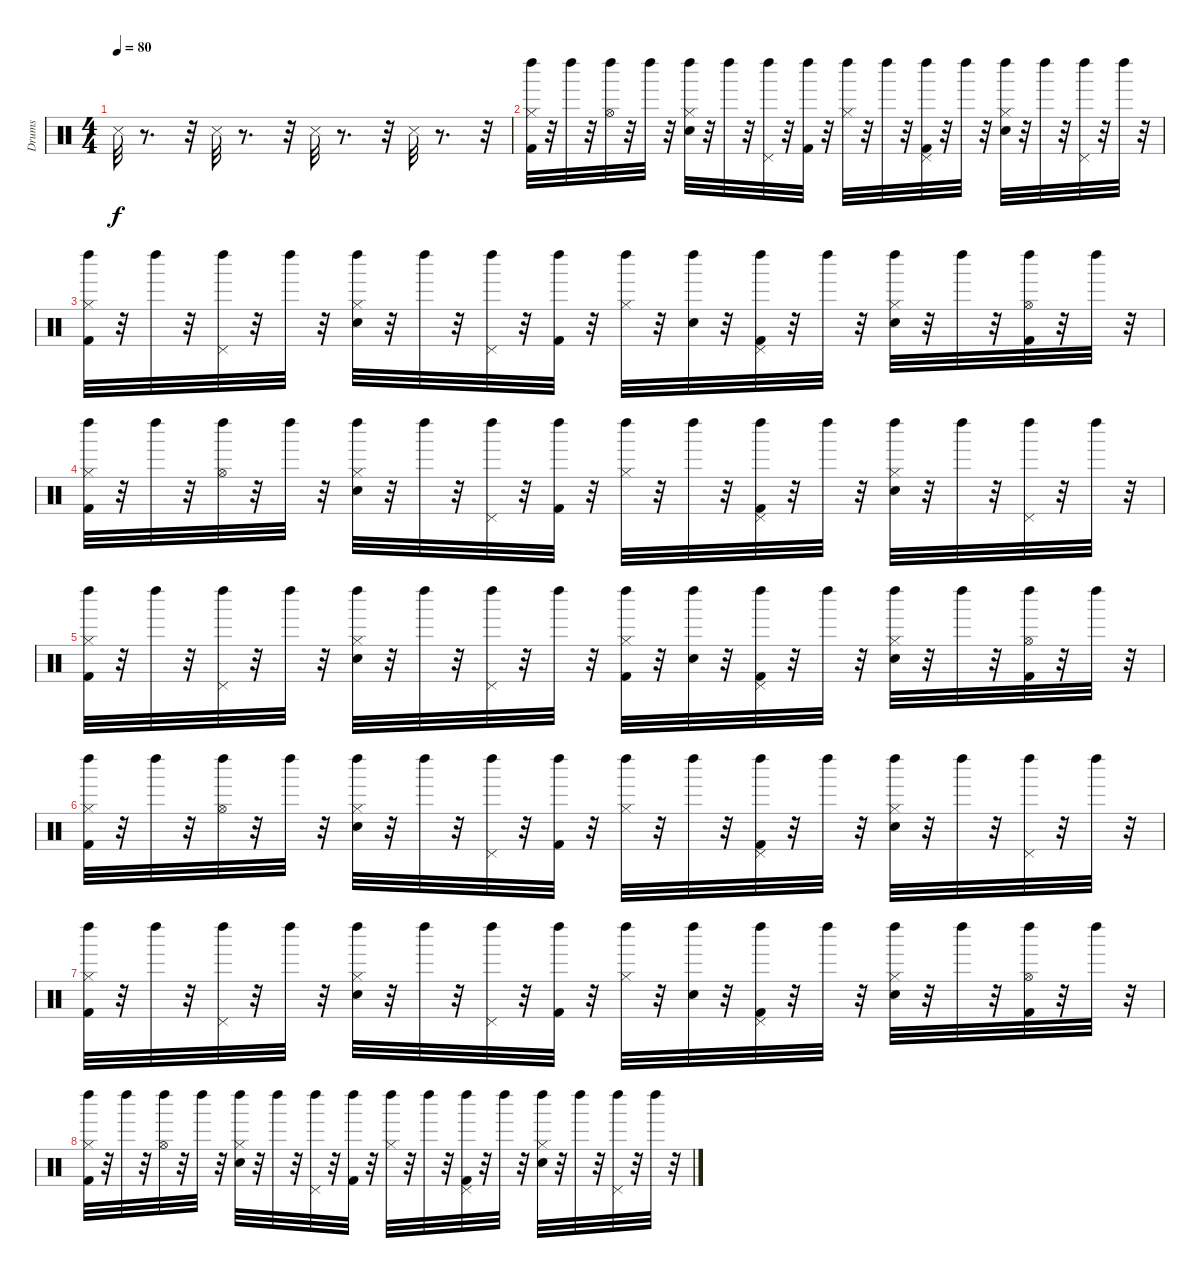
\track ("Drums" "Drums") {instrument percussion}
\staff {score}
\articulation defaults
\ts (4 4)
\tempo 80
\clef neutral
\ks c "Snare (side stick) 3".32{dy f}
r.8{d} r.32 "Snare (side stick) 3".32 r.8{d} r.32 "Snare (side stick) 3".32 r.8{d} r.32 "Snare (side stick) 3".32 r.8{d} r.32 |
("Left Maraca (hit)" "Kick (hit) 2" "Hi-Hat (closed)").32 r.32 "Left Maraca (hit)".32 r.32 ("Left Maraca (hit)" "Hi-Hat (open)").32 r.32 "Left Maraca (hit)".32 r.32 ("Left Maraca (hit)" "Snare (hit) 2" "Hi-Hat (closed)").32 r.32 "Left Maraca (hit)".32 r.32 ("Left Maraca (hit)" "Pedal Hi-Hat (hit)").32 r.32 ("Left Maraca (hit)" "Kick (hit) 2").32 r.32 ("Left Maraca (hit)" "Hi-Hat (closed)").32 r.32 "Left Maraca (hit)".32 r.32 ("Left Maraca (hit)" "Kick (hit) 2" "Pedal Hi-Hat (hit)").32 r.32 "Left Maraca (hit)".32 r.32 ("Left Maraca (hit)" "Snare (hit) 2" "Hi-Hat (closed)").32 r.32 "Left Maraca (hit)".32 r.32 ("Left Maraca (hit)" "Pedal Hi-Hat (hit)").32 r.32 "Left Maraca (hit)".32 r.32 |
("Kick (hit) 2" "Hi-Hat (closed)" "Left Maraca (hit)").32 r.32 "Left Maraca (hit)".32 r.32 ("Pedal Hi-Hat (hit)" "Left Maraca (hit)").32 r.32 "Left Maraca (hit)".32 r.32 ("Snare (hit) 2" "Hi-Hat (closed)" "Left Maraca (hit)").32 r.32 "Left Maraca (hit)".32 r.32 ("Pedal Hi-Hat (hit)" "Left Maraca (hit)").32 r.32 ("Left Maraca (hit)" "Kick (hit) 2").32 r.32 ("Hi-Hat (closed)" "Left Maraca (hit)").32 r.32 ("Left Maraca (hit)" "Snare (hit) 2").32 r.32 ("Kick (hit) 2" "Pedal Hi-Hat (hit)" "Left Maraca (hit)").32 r.32 "Left Maraca (hit)".32 r.32 ("Snare (hit) 2" "Hi-Hat (closed)" "Left Maraca (hit)").32 r.32 "Left Maraca (hit)".32 r.32 ("Left Maraca (hit)" "Hi-Hat (open)" "Kick (hit) 2").32 r.32 "Left Maraca (hit)".32 r.32 |
("Left Maraca (hit)" "Kick (hit) 2" "Hi-Hat (closed)").32 r.32 "Left Maraca (hit)".32 r.32 ("Left Maraca (hit)" "Hi-Hat (open)").32 r.32 "Left Maraca (hit)".32 r.32 ("Left Maraca (hit)" "Snare (hit) 2" "Hi-Hat (closed)").32 r.32 "Left Maraca (hit)".32 r.32 ("Left Maraca (hit)" "Pedal Hi-Hat (hit)").32 r.32 ("Left Maraca (hit)" "Kick (hit) 2").32 r.32 ("Left Maraca (hit)" "Hi-Hat (closed)").32 r.32 "Left Maraca (hit)".32 r.32 ("Left Maraca (hit)" "Kick (hit) 2" "Pedal Hi-Hat (hit)").32 r.32 "Left Maraca (hit)".32 r.32 ("Left Maraca (hit)" "Snare (hit) 2" "Hi-Hat (closed)").32 r.32 "Left Maraca (hit)".32 r.32 ("Left Maraca (hit)" "Pedal Hi-Hat (hit)").32 r.32 "Left Maraca (hit)".32 r.32 |
("Left Maraca (hit)" "Kick (hit) 2" "Hi-Hat (closed)").32 r.32 "Left Maraca (hit)".32 r.32 ("Left Maraca (hit)" "Pedal Hi-Hat (hit)").32 r.32 "Left Maraca (hit)".32 r.32 ("Left Maraca (hit)" "Snare (hit) 2" "Hi-Hat (closed)").32 r.32 "Left Maraca (hit)".32 r.32 ("Left Maraca (hit)" "Pedal Hi-Hat (hit)").32 r.32 "Left Maraca (hit)".32 r.32 ("Left Maraca (hit)" "Kick (hit) 2" "Hi-Hat (closed)").32 r.32 ("Left Maraca (hit)" "Snare (hit) 2").32 r.32 ("Left Maraca (hit)" "Kick (hit) 2" "Pedal Hi-Hat (hit)").32 r.32 "Left Maraca (hit)".32 r.32 ("Left Maraca (hit)" "Snare (hit) 2" "Hi-Hat (closed)").32 r.32 "Left Maraca (hit)".32 r.32 ("Left Maraca (hit)" "Hi-Hat (open)" "Kick (hit) 2").32 r.32 "Left Maraca (hit)".32 r.32 |
("Left Maraca (hit)" "Kick (hit) 2" "Hi-Hat (closed)").32 r.32 "Left Maraca (hit)".32 r.32 ("Left Maraca (hit)" "Hi-Hat (open)").32 r.32 "Left Maraca (hit)".32 r.32 ("Left Maraca (hit)" "Snare (hit) 2" "Hi-Hat (closed)").32 r.32 "Left Maraca (hit)".32 r.32 ("Left Maraca (hit)" "Pedal Hi-Hat (hit)").32 r.32 ("Left Maraca (hit)" "Kick (hit) 2").32 r.32 ("Left Maraca (hit)" "Hi-Hat (closed)").32 r.32 "Left Maraca (hit)".32 r.32 ("Left Maraca (hit)" "Kick (hit) 2" "Pedal Hi-Hat (hit)").32 r.32 "Left Maraca (hit)".32 r.32 ("Left Maraca (hit)" "Snare (hit) 2" "Hi-Hat (closed)").32 r.32 "Left Maraca (hit)".32 r.32 ("Left Maraca (hit)" "Pedal Hi-Hat (hit)").32 r.32 "Left Maraca (hit)".32 r.32 |
("Left Maraca (hit)" "Kick (hit) 2" "Hi-Hat (closed)").32 r.32 "Left Maraca (hit)".32 r.32 ("Left Maraca (hit)" "Pedal Hi-Hat (hit)").32 r.32 "Left Maraca (hit)".32 r.32 ("Left Maraca (hit)" "Snare (hit) 2" "Hi-Hat (closed)").32 r.32 "Left Maraca (hit)".32 r.32 ("Left Maraca (hit)" "Pedal Hi-Hat (hit)").32 r.32 ("Left Maraca (hit)" "Kick (hit) 2").32 r.32 ("Left Maraca (hit)" "Hi-Hat (closed)").32 r.32 ("Left Maraca (hit)" "Snare (hit) 2").32 r.32 ("Left Maraca (hit)" "Kick (hit) 2" "Pedal Hi-Hat (hit)").32 r.32 "Left Maraca (hit)".32 r.32 ("Left Maraca (hit)" "Snare (hit) 2" "Hi-Hat (closed)").32 r.32 "Left Maraca (hit)".32 r.32 ("Left Maraca (hit)" "Hi-Hat (open)" "Kick (hit) 2").32 r.32 "Left Maraca (hit)".32 r.32 |
("Left Maraca (hit)" "Kick (hit) 2" "Hi-Hat (closed)").32 r.32 "Left Maraca (hit)".32 r.32 ("Left Maraca (hit)" "Hi-Hat (open)").32 r.32 "Left Maraca (hit)".32 r.32 ("Left Maraca (hit)" "Snare (hit) 2" "Hi-Hat (closed)").32 r.32 "Left Maraca (hit)".32 r.32 ("Left Maraca (hit)" "Pedal Hi-Hat (hit)").32 r.32 ("Left Maraca (hit)" "Kick (hit) 2").32 r.32 ("Left Maraca (hit)" "Hi-Hat (closed)").32 r.32 "Left Maraca (hit)".32 r.32 ("Left Maraca (hit)" "Kick (hit) 2" "Pedal Hi-Hat (hit)").32 r.32 "Left Maraca (hit)".32 r.32 ("Left Maraca (hit)" "Snare (hit) 2" "Hi-Hat (closed)").32 r.32 "Left Maraca (hit)".32 r.32 ("Left Maraca (hit)" "Pedal Hi-Hat (hit)").32 r.32 "Left Maraca (hit)".32 r.32
